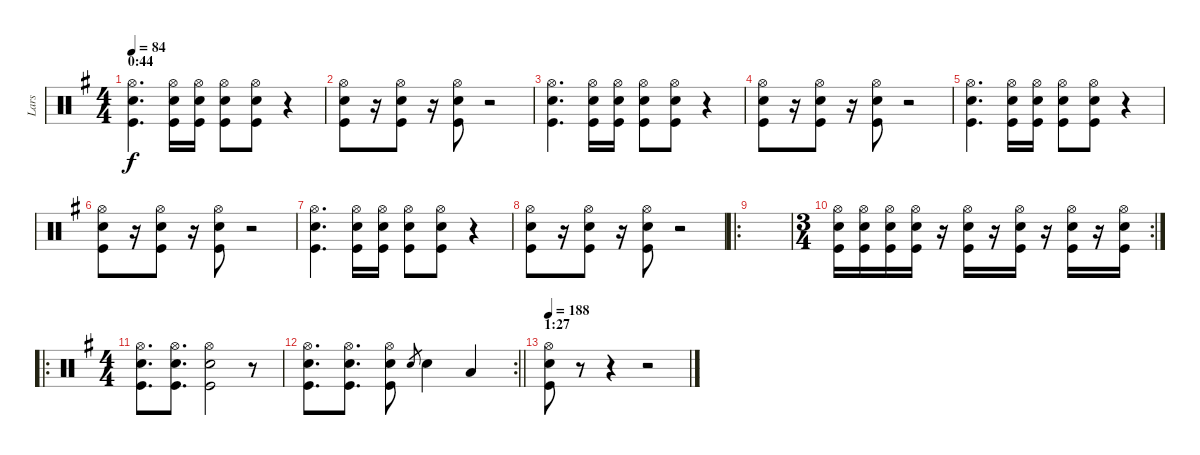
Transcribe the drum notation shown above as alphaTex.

\track ("Lars" "Lars") {instrument percussion}
\staff {score}
\articulation defaults
\ts (4 4)
\section ("" "0:44")
\tempo 84
\clef neutral
\ks eminor
("Kick (hit)" "Snare (hit) 2" "Hi-Hat (open)").4{d dy f} ("Kick (hit)" "Snare (hit) 2" "Hi-Hat (open)").16 ("Kick (hit)" "Snare (hit) 2" "Hi-Hat (open)").16 ("Kick (hit)" "Snare (hit) 2" "Hi-Hat (open)").8 ("Kick (hit)" "Snare (hit) 2" "Hi-Hat (open)").8 r.4 |
("Kick (hit)" "Snare (hit) 2" "Hi-Hat (open)").8 r.16 ("Kick (hit)" "Snare (hit) 2" "Hi-Hat (open)").8 r.16 ("Kick (hit)" "Snare (hit) 2" "Hi-Hat (open)").8 r.2 |
("Kick (hit)" "Snare (hit) 2" "Hi-Hat (open)").4{d} ("Kick (hit)" "Snare (hit) 2" "Hi-Hat (open)").16 ("Kick (hit)" "Snare (hit) 2" "Hi-Hat (open)").16 ("Kick (hit)" "Snare (hit) 2" "Hi-Hat (open)").8 ("Kick (hit)" "Snare (hit) 2" "Hi-Hat (open)").8 r.4 |
("Kick (hit)" "Snare (hit) 2" "Hi-Hat (open)").8 r.16 ("Kick (hit)" "Snare (hit) 2" "Hi-Hat (open)").8 r.16 ("Kick (hit)" "Snare (hit) 2" "Hi-Hat (open)").8 r.2 |
("Kick (hit)" "Snare (hit) 2" "Hi-Hat (open)").4{d} ("Kick (hit)" "Snare (hit) 2" "Hi-Hat (open)").16 ("Kick (hit)" "Snare (hit) 2" "Hi-Hat (open)").16 ("Kick (hit)" "Snare (hit) 2" "Hi-Hat (open)").8 ("Kick (hit)" "Snare (hit) 2" "Hi-Hat (open)").8 r.4 |
("Kick (hit)" "Snare (hit) 2" "Hi-Hat (open)").8 r.16 ("Kick (hit)" "Snare (hit) 2" "Hi-Hat (open)").8 r.16 ("Kick (hit)" "Snare (hit) 2" "Hi-Hat (open)").8 r.2 |
("Kick (hit)" "Snare (hit) 2" "Hi-Hat (open)").4{d} ("Kick (hit)" "Snare (hit) 2" "Hi-Hat (open)").16 ("Kick (hit)" "Snare (hit) 2" "Hi-Hat (open)").16 ("Kick (hit)" "Snare (hit) 2" "Hi-Hat (open)").8 ("Kick (hit)" "Snare (hit) 2" "Hi-Hat (open)").8 r.4 |
("Kick (hit)" "Snare (hit) 2" "Hi-Hat (open)").8 r.16 ("Kick (hit)" "Snare (hit) 2" "Hi-Hat (open)").8 r.16 ("Kick (hit)" "Snare (hit) 2" "Hi-Hat (open)").8 r.2 |
\ro
|
\rc 2
\ts (3 4)
("Kick (hit)" "Snare (hit) 2" "Hi-Hat (open)").16 ("Kick (hit)" "Snare (hit) 2" "Hi-Hat (open)").16 ("Kick (hit)" "Snare (hit) 2" "Hi-Hat (open)").16 ("Kick (hit)" "Snare (hit) 2" "Hi-Hat (open)").16 r.16 ("Kick (hit)" "Snare (hit) 2" "Hi-Hat (open)").16 r.16 ("Kick (hit)" "Snare (hit) 2" "Hi-Hat (open)").16 r.16 ("Kick (hit)" "Snare (hit) 2" "Hi-Hat (open)").16 r.16 ("Kick (hit)" "Snare (hit) 2" "Hi-Hat (open)").16 |
\ro
\ts (4 4)
("Kick (hit)" "Snare (hit) 2" "Hi-Hat (open)").8{d} ("Kick (hit)" "Snare (hit) 2" "Hi-Hat (open)").8{d} ("Kick (hit)" "Snare (hit) 2" "Hi-Hat (open)").2 r.8 |
\rc 2
\barLineRight lightlight
("Kick (hit)" "Snare (hit) 2" "Hi-Hat (open)").8{d} ("Kick (hit)" "Snare (hit) 2" "Hi-Hat (open)").8{d} ("Kick (hit)" "Snare (hit) 2" "Hi-Hat (open)").8 "Snare (hit) 2".8{gr} "Snare (hit) 2".4 "Low Tom (hit)".4 |
\section ("" "1:27")
\tempo 188
("Kick (hit)" "Snare (hit) 2" "Hi-Hat (open)").8 r.8 r.4 r.2
